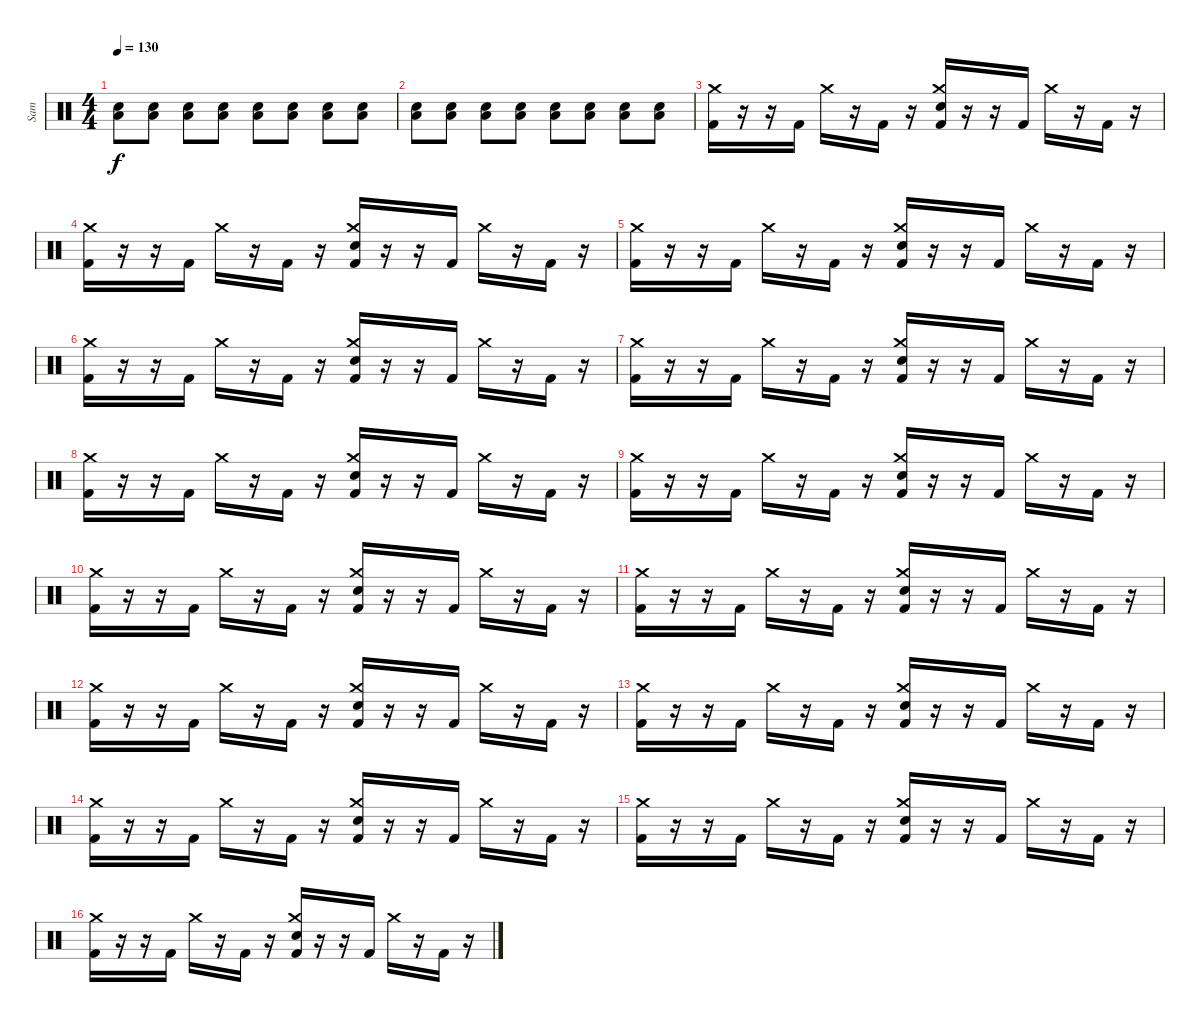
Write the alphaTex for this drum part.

\track ("Sam" "Sam") {instrument percussion}
\staff {score}
\articulation defaults
\ts (4 4)
\tempo 130
\clef neutral
\ks c
("Low Tom (hit)" "Electric Snare (hit)").8{dy f volume 12} ("Low Tom (hit)" "Electric Snare (hit)").8 ("Low Tom (hit)" "Electric Snare (hit)").8 ("Low Tom (hit)" "Electric Snare (hit)").8 ("Low Tom (hit)" "Electric Snare (hit)").8 ("Low Tom (hit)" "Electric Snare (hit)").8 ("Low Tom (hit)" "Electric Snare (hit)").8 ("Low Tom (hit)" "Electric Snare (hit)").8 |
("Low Tom (hit)" "Electric Snare (hit)").8 ("Low Tom (hit)" "Electric Snare (hit)").8 ("Low Tom (hit)" "Electric Snare (hit)").8 ("Low Tom (hit)" "Electric Snare (hit)").8 ("Low Tom (hit)" "Electric Snare (hit)").8 ("Low Tom (hit)" "Electric Snare (hit)").8 ("Low Tom (hit)" "Electric Snare (hit)").8 ("Low Tom (hit)" "Electric Snare (hit)").8 |
("Crash medium (hit)" "Kick (hit) 2").16 r.16 r.16 "Kick (hit) 2".16 "Crash medium (hit)".16 r.16 "Kick (hit) 2".16 r.16 ("Crash medium (hit)" "Electric Snare (hit)" "Kick (hit) 2").16 r.16 r.16 "Kick (hit) 2".16 "Crash medium (hit)".16 r.16 "Kick (hit) 2".16 r.16 |
("Crash medium (hit)" "Kick (hit) 2").16 r.16 r.16 "Kick (hit) 2".16 "Crash medium (hit)".16 r.16 "Kick (hit) 2".16 r.16 ("Crash medium (hit)" "Electric Snare (hit)" "Kick (hit) 2").16 r.16 r.16 "Kick (hit) 2".16 "Crash medium (hit)".16 r.16 "Kick (hit) 2".16 r.16 |
("Crash medium (hit)" "Kick (hit) 2").16 r.16 r.16 "Kick (hit) 2".16 "Crash medium (hit)".16 r.16 "Kick (hit) 2".16 r.16 ("Crash medium (hit)" "Electric Snare (hit)" "Kick (hit) 2").16 r.16 r.16 "Kick (hit) 2".16 "Crash medium (hit)".16 r.16 "Kick (hit) 2".16 r.16 |
("Crash medium (hit)" "Kick (hit) 2").16 r.16 r.16 "Kick (hit) 2".16 "Crash medium (hit)".16 r.16 "Kick (hit) 2".16 r.16 ("Crash medium (hit)" "Electric Snare (hit)" "Kick (hit) 2").16 r.16 r.16 "Kick (hit) 2".16 "Crash medium (hit)".16 r.16 "Kick (hit) 2".16 r.16 |
("Crash medium (hit)" "Kick (hit) 2").16 r.16 r.16 "Kick (hit) 2".16 "Crash medium (hit)".16 r.16 "Kick (hit) 2".16 r.16 ("Crash medium (hit)" "Electric Snare (hit)" "Kick (hit) 2").16 r.16 r.16 "Kick (hit) 2".16 "Crash medium (hit)".16 r.16 "Kick (hit) 2".16 r.16 |
("Crash medium (hit)" "Kick (hit) 2").16 r.16 r.16 "Kick (hit) 2".16 "Crash medium (hit)".16 r.16 "Kick (hit) 2".16 r.16 ("Crash medium (hit)" "Electric Snare (hit)" "Kick (hit) 2").16 r.16 r.16 "Kick (hit) 2".16 "Crash medium (hit)".16 r.16 "Kick (hit) 2".16 r.16 |
("Crash medium (hit)" "Kick (hit) 2").16 r.16 r.16 "Kick (hit) 2".16 "Crash medium (hit)".16 r.16 "Kick (hit) 2".16 r.16 ("Crash medium (hit)" "Electric Snare (hit)" "Kick (hit) 2").16 r.16 r.16 "Kick (hit) 2".16 "Crash medium (hit)".16 r.16 "Kick (hit) 2".16 r.16 |
("Crash medium (hit)" "Kick (hit) 2").16 r.16 r.16 "Kick (hit) 2".16 "Crash medium (hit)".16 r.16 "Kick (hit) 2".16 r.16 ("Crash medium (hit)" "Electric Snare (hit)" "Kick (hit) 2").16 r.16 r.16 "Kick (hit) 2".16 "Crash medium (hit)".16 r.16 "Kick (hit) 2".16 r.16 |
("Crash medium (hit)" "Kick (hit) 2").16 r.16 r.16 "Kick (hit) 2".16 "Crash medium (hit)".16 r.16 "Kick (hit) 2".16 r.16 ("Crash medium (hit)" "Electric Snare (hit)" "Kick (hit) 2").16 r.16 r.16 "Kick (hit) 2".16 "Crash medium (hit)".16 r.16 "Kick (hit) 2".16 r.16 |
("Crash medium (hit)" "Kick (hit) 2").16 r.16 r.16 "Kick (hit) 2".16 "Crash medium (hit)".16 r.16 "Kick (hit) 2".16 r.16 ("Crash medium (hit)" "Electric Snare (hit)" "Kick (hit) 2").16 r.16 r.16 "Kick (hit) 2".16 "Crash medium (hit)".16 r.16 "Kick (hit) 2".16 r.16 |
("Crash medium (hit)" "Kick (hit) 2").16 r.16 r.16 "Kick (hit) 2".16 "Crash medium (hit)".16 r.16 "Kick (hit) 2".16 r.16 ("Crash medium (hit)" "Electric Snare (hit)" "Kick (hit) 2").16 r.16 r.16 "Kick (hit) 2".16 "Crash medium (hit)".16 r.16 "Kick (hit) 2".16 r.16 |
("Crash medium (hit)" "Kick (hit) 2").16 r.16 r.16 "Kick (hit) 2".16 "Crash medium (hit)".16 r.16 "Kick (hit) 2".16 r.16 ("Crash medium (hit)" "Electric Snare (hit)" "Kick (hit) 2").16 r.16 r.16 "Kick (hit) 2".16 "Crash medium (hit)".16 r.16 "Kick (hit) 2".16 r.16 |
("Crash medium (hit)" "Kick (hit) 2").16 r.16 r.16 "Kick (hit) 2".16 "Crash medium (hit)".16 r.16 "Kick (hit) 2".16 r.16 ("Crash medium (hit)" "Electric Snare (hit)" "Kick (hit) 2").16 r.16 r.16 "Kick (hit) 2".16 "Crash medium (hit)".16 r.16 "Kick (hit) 2".16 r.16 |
("Crash medium (hit)" "Kick (hit) 2").16 r.16 r.16 "Kick (hit) 2".16 "Crash medium (hit)".16 r.16 "Kick (hit) 2".16 r.16 ("Crash medium (hit)" "Electric Snare (hit)" "Kick (hit) 2").16 r.16 r.16 "Kick (hit) 2".16 "Crash medium (hit)".16 r.16 "Kick (hit) 2".16 r.16
